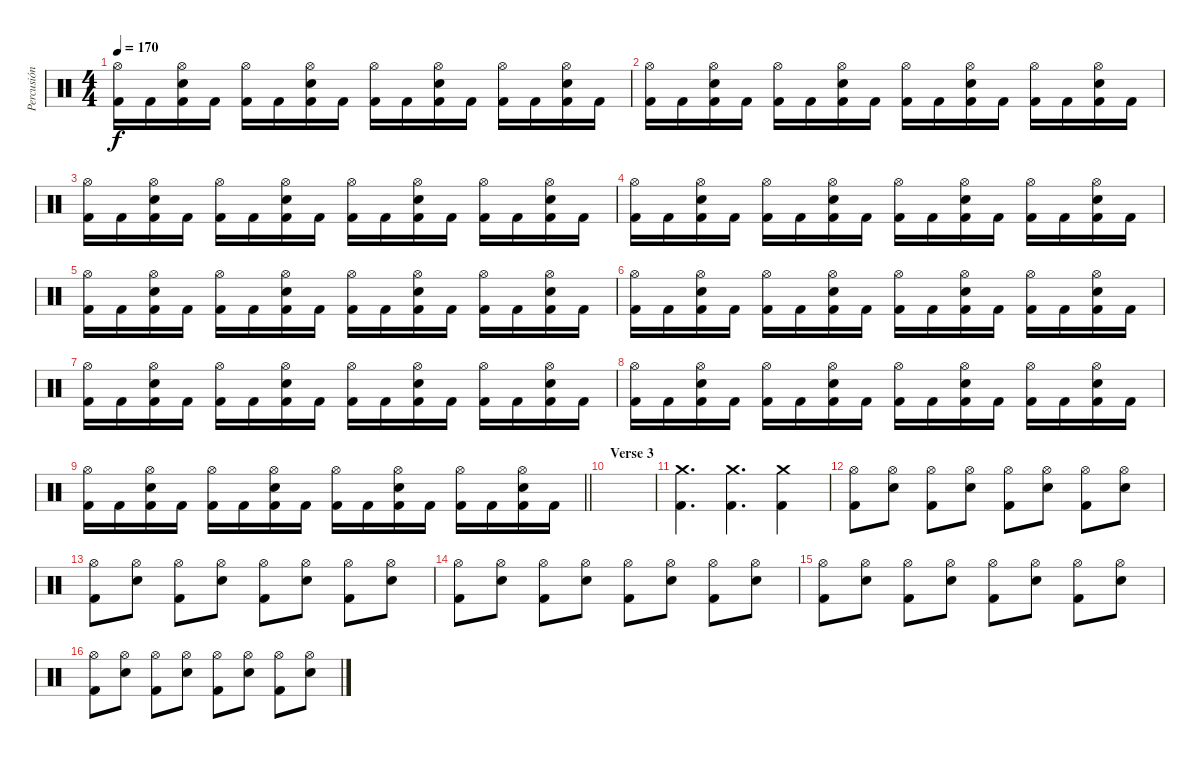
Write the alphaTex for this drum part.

\track ("Percusión" "Percusión") {instrument percussion}
\staff {score}
\articulation defaults
\ts (4 4)
\tempo 170
\clef neutral
\ks c
("Hi-Hat (open)" "Kick (hit) 2").16{dy f} "Kick (hit) 2".16 ("Hi-Hat (open)" "Snare (hit) 2" "Kick (hit) 2").16 "Kick (hit) 2".16 ("Hi-Hat (open)" "Kick (hit) 2").16 "Kick (hit) 2".16 ("Hi-Hat (open)" "Snare (hit) 2" "Kick (hit) 2").16 "Kick (hit) 2".16 ("Hi-Hat (open)" "Kick (hit) 2").16 "Kick (hit) 2".16 ("Hi-Hat (open)" "Snare (hit) 2" "Kick (hit) 2").16 "Kick (hit) 2".16 ("Hi-Hat (open)" "Kick (hit) 2").16 "Kick (hit) 2".16 ("Hi-Hat (open)" "Snare (hit) 2" "Kick (hit) 2").16 "Kick (hit) 2".16 |
("Hi-Hat (open)" "Kick (hit) 2").16 "Kick (hit) 2".16 ("Hi-Hat (open)" "Snare (hit) 2" "Kick (hit) 2").16 "Kick (hit) 2".16 ("Hi-Hat (open)" "Kick (hit) 2").16 "Kick (hit) 2".16 ("Hi-Hat (open)" "Snare (hit) 2" "Kick (hit) 2").16 "Kick (hit) 2".16 ("Hi-Hat (open)" "Kick (hit) 2").16 "Kick (hit) 2".16 ("Hi-Hat (open)" "Snare (hit) 2" "Kick (hit) 2").16 "Kick (hit) 2".16 ("Hi-Hat (open)" "Kick (hit) 2").16 "Kick (hit) 2".16 ("Hi-Hat (open)" "Snare (hit) 2" "Kick (hit) 2").16 "Kick (hit) 2".16 |
("Hi-Hat (open)" "Kick (hit) 2").16 "Kick (hit) 2".16 ("Hi-Hat (open)" "Snare (hit) 2" "Kick (hit) 2").16 "Kick (hit) 2".16 ("Hi-Hat (open)" "Kick (hit) 2").16 "Kick (hit) 2".16 ("Hi-Hat (open)" "Snare (hit) 2" "Kick (hit) 2").16 "Kick (hit) 2".16 ("Hi-Hat (open)" "Kick (hit) 2").16 "Kick (hit) 2".16 ("Hi-Hat (open)" "Snare (hit) 2" "Kick (hit) 2").16 "Kick (hit) 2".16 ("Hi-Hat (open)" "Kick (hit) 2").16 "Kick (hit) 2".16 ("Hi-Hat (open)" "Snare (hit) 2" "Kick (hit) 2").16 "Kick (hit) 2".16 |
("Hi-Hat (open)" "Kick (hit) 2").16 "Kick (hit) 2".16 ("Hi-Hat (open)" "Snare (hit) 2" "Kick (hit) 2").16 "Kick (hit) 2".16 ("Hi-Hat (open)" "Kick (hit) 2").16 "Kick (hit) 2".16 ("Hi-Hat (open)" "Snare (hit) 2" "Kick (hit) 2").16 "Kick (hit) 2".16 ("Hi-Hat (open)" "Kick (hit) 2").16 "Kick (hit) 2".16 ("Hi-Hat (open)" "Snare (hit) 2" "Kick (hit) 2").16 "Kick (hit) 2".16 ("Hi-Hat (open)" "Kick (hit) 2").16 "Kick (hit) 2".16 ("Hi-Hat (open)" "Snare (hit) 2" "Kick (hit) 2").16 "Kick (hit) 2".16 |
("Hi-Hat (open)" "Kick (hit) 2").16 "Kick (hit) 2".16 ("Hi-Hat (open)" "Snare (hit) 2" "Kick (hit) 2").16 "Kick (hit) 2".16 ("Hi-Hat (open)" "Kick (hit) 2").16 "Kick (hit) 2".16 ("Hi-Hat (open)" "Snare (hit) 2" "Kick (hit) 2").16 "Kick (hit) 2".16 ("Hi-Hat (open)" "Kick (hit) 2").16 "Kick (hit) 2".16 ("Hi-Hat (open)" "Snare (hit) 2" "Kick (hit) 2").16 "Kick (hit) 2".16 ("Hi-Hat (open)" "Kick (hit) 2").16 "Kick (hit) 2".16 ("Hi-Hat (open)" "Snare (hit) 2" "Kick (hit) 2").16 "Kick (hit) 2".16 |
("Hi-Hat (open)" "Kick (hit) 2").16 "Kick (hit) 2".16 ("Hi-Hat (open)" "Snare (hit) 2" "Kick (hit) 2").16 "Kick (hit) 2".16 ("Hi-Hat (open)" "Kick (hit) 2").16 "Kick (hit) 2".16 ("Hi-Hat (open)" "Snare (hit) 2" "Kick (hit) 2").16 "Kick (hit) 2".16 ("Hi-Hat (open)" "Kick (hit) 2").16 "Kick (hit) 2".16 ("Hi-Hat (open)" "Snare (hit) 2" "Kick (hit) 2").16 "Kick (hit) 2".16 ("Hi-Hat (open)" "Kick (hit) 2").16 "Kick (hit) 2".16 ("Hi-Hat (open)" "Snare (hit) 2" "Kick (hit) 2").16 "Kick (hit) 2".16 |
("Hi-Hat (open)" "Kick (hit) 2").16 "Kick (hit) 2".16 ("Hi-Hat (open)" "Snare (hit) 2" "Kick (hit) 2").16 "Kick (hit) 2".16 ("Hi-Hat (open)" "Kick (hit) 2").16 "Kick (hit) 2".16 ("Hi-Hat (open)" "Snare (hit) 2" "Kick (hit) 2").16 "Kick (hit) 2".16 ("Hi-Hat (open)" "Kick (hit) 2").16 "Kick (hit) 2".16 ("Hi-Hat (open)" "Snare (hit) 2" "Kick (hit) 2").16 "Kick (hit) 2".16 ("Hi-Hat (open)" "Kick (hit) 2").16 "Kick (hit) 2".16 ("Hi-Hat (open)" "Snare (hit) 2" "Kick (hit) 2").16 "Kick (hit) 2".16 |
("Hi-Hat (open)" "Kick (hit) 2").16 "Kick (hit) 2".16 ("Hi-Hat (open)" "Snare (hit) 2" "Kick (hit) 2").16 "Kick (hit) 2".16 ("Hi-Hat (open)" "Kick (hit) 2").16 "Kick (hit) 2".16 ("Hi-Hat (open)" "Snare (hit) 2" "Kick (hit) 2").16 "Kick (hit) 2".16 ("Hi-Hat (open)" "Kick (hit) 2").16 "Kick (hit) 2".16 ("Hi-Hat (open)" "Snare (hit) 2" "Kick (hit) 2").16 "Kick (hit) 2".16 ("Hi-Hat (open)" "Kick (hit) 2").16 "Kick (hit) 2".16 ("Hi-Hat (open)" "Snare (hit) 2" "Kick (hit) 2").16 "Kick (hit) 2".16 |
\barLineRight lightlight
("Hi-Hat (open)" "Kick (hit) 2").16 "Kick (hit) 2".16 ("Hi-Hat (open)" "Snare (hit) 2" "Kick (hit) 2").16 "Kick (hit) 2".16 ("Hi-Hat (open)" "Kick (hit) 2").16 "Kick (hit) 2".16 ("Hi-Hat (open)" "Snare (hit) 2" "Kick (hit) 2").16 "Kick (hit) 2".16 ("Hi-Hat (open)" "Kick (hit) 2").16 "Kick (hit) 2".16 ("Hi-Hat (open)" "Snare (hit) 2" "Kick (hit) 2").16 "Kick (hit) 2".16 ("Hi-Hat (open)" "Kick (hit) 2").16 "Kick (hit) 2".16 ("Hi-Hat (open)" "Snare (hit) 2" "Kick (hit) 2").16 "Kick (hit) 2".16 |
\section ("" "Verse 3")
|
("Crash medium (hit)" "Kick (hit) 2").4{d} ("Crash medium (hit)" "Kick (hit) 2").4{d} ("Crash medium (hit)" "Kick (hit) 2").4 |
("Hi-Hat (open)" "Kick (hit) 2").8 ("Hi-Hat (open)" "Snare (hit) 2").8 ("Hi-Hat (open)" "Kick (hit) 2").8 ("Hi-Hat (open)" "Snare (hit) 2").8 ("Hi-Hat (open)" "Kick (hit) 2").8 ("Hi-Hat (open)" "Snare (hit) 2").8 ("Hi-Hat (open)" "Kick (hit) 2").8 ("Hi-Hat (open)" "Snare (hit) 2").8 |
("Hi-Hat (open)" "Kick (hit) 2").8 ("Hi-Hat (open)" "Snare (hit) 2").8 ("Hi-Hat (open)" "Kick (hit) 2").8 ("Hi-Hat (open)" "Snare (hit) 2").8 ("Hi-Hat (open)" "Kick (hit) 2").8 ("Hi-Hat (open)" "Snare (hit) 2").8 ("Hi-Hat (open)" "Kick (hit) 2").8 ("Hi-Hat (open)" "Snare (hit) 2").8 |
("Hi-Hat (open)" "Kick (hit) 2").8 ("Hi-Hat (open)" "Snare (hit) 2").8 ("Hi-Hat (open)" "Kick (hit) 2").8 ("Hi-Hat (open)" "Snare (hit) 2").8 ("Hi-Hat (open)" "Kick (hit) 2").8 ("Hi-Hat (open)" "Snare (hit) 2").8 ("Hi-Hat (open)" "Kick (hit) 2").8 ("Hi-Hat (open)" "Snare (hit) 2").8 |
("Hi-Hat (open)" "Kick (hit) 2").8 ("Hi-Hat (open)" "Snare (hit) 2").8 ("Hi-Hat (open)" "Kick (hit) 2").8 ("Hi-Hat (open)" "Snare (hit) 2").8 ("Hi-Hat (open)" "Kick (hit) 2").8 ("Hi-Hat (open)" "Snare (hit) 2").8 ("Hi-Hat (open)" "Kick (hit) 2").8 ("Hi-Hat (open)" "Snare (hit) 2").8 |
("Hi-Hat (open)" "Kick (hit) 2").8 ("Hi-Hat (open)" "Snare (hit) 2").8 ("Hi-Hat (open)" "Kick (hit) 2").8 ("Hi-Hat (open)" "Snare (hit) 2").8 ("Hi-Hat (open)" "Kick (hit) 2").8 ("Hi-Hat (open)" "Snare (hit) 2").8 ("Hi-Hat (open)" "Kick (hit) 2").8 ("Hi-Hat (open)" "Snare (hit) 2").8
